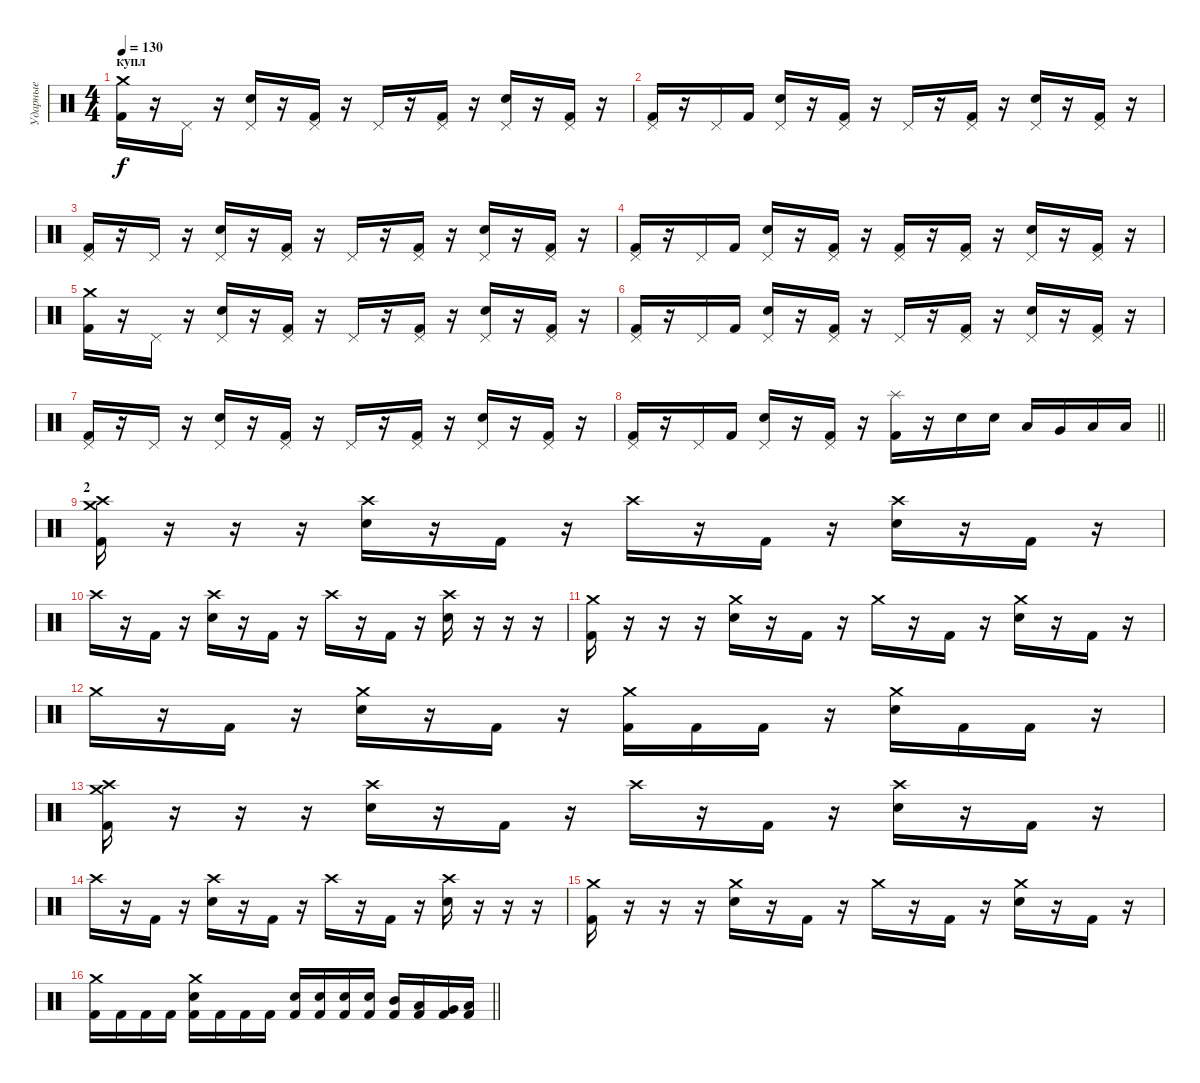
\track ("Ударные" "Ударные") {instrument percussion}
\staff {score}
\articulation defaults
\ts (4 4)
\section ("" "купл")
\tempo 130
\clef neutral
\ks c
("Crash medium (hit)" "Kick (hit) 2").16{dy f} r.16 "Pedal Hi-Hat (hit)".16 r.16 ("Pedal Hi-Hat (hit)" "Snare (hit) 2").16 r.16 ("Pedal Hi-Hat (hit)" "Kick (hit) 2").16 r.16 "Pedal Hi-Hat (hit)".16 r.16 ("Pedal Hi-Hat (hit)" "Kick (hit) 2").16 r.16 ("Pedal Hi-Hat (hit)" "Snare (hit) 2").16 r.16 ("Pedal Hi-Hat (hit)" "Kick (hit) 2").16 r.16 |
("Pedal Hi-Hat (hit)" "Kick (hit) 2").16 r.16 "Pedal Hi-Hat (hit)".16 "Kick (hit) 2".16 ("Pedal Hi-Hat (hit)" "Snare (hit) 2").16 r.16 ("Pedal Hi-Hat (hit)" "Kick (hit) 2").16 r.16 "Pedal Hi-Hat (hit)".16 r.16 ("Pedal Hi-Hat (hit)" "Kick (hit) 2").16 r.16 ("Pedal Hi-Hat (hit)" "Snare (hit) 2").16 r.16 ("Pedal Hi-Hat (hit)" "Kick (hit) 2").16 r.16 |
("Pedal Hi-Hat (hit)" "Kick (hit) 2").16 r.16 "Pedal Hi-Hat (hit)".16 r.16 ("Pedal Hi-Hat (hit)" "Snare (hit) 2").16 r.16 ("Pedal Hi-Hat (hit)" "Kick (hit) 2").16 r.16 "Pedal Hi-Hat (hit)".16 r.16 ("Pedal Hi-Hat (hit)" "Kick (hit) 2").16 r.16 ("Pedal Hi-Hat (hit)" "Snare (hit) 2").16 r.16 ("Pedal Hi-Hat (hit)" "Kick (hit) 2").16 r.16 |
("Pedal Hi-Hat (hit)" "Kick (hit) 2").16 r.16 "Pedal Hi-Hat (hit)".16 "Kick (hit) 2".16 ("Pedal Hi-Hat (hit)" "Snare (hit) 2").16 r.16 ("Pedal Hi-Hat (hit)" "Kick (hit) 2").16 r.16 ("Pedal Hi-Hat (hit)" "Kick (hit) 2").16 r.16 ("Pedal Hi-Hat (hit)" "Kick (hit) 2").16 r.16 ("Pedal Hi-Hat (hit)" "Snare (hit) 2").16 r.16 ("Pedal Hi-Hat (hit)" "Kick (hit) 2").16 r.16 |
("Crash medium (hit)" "Kick (hit) 2").16 r.16 "Pedal Hi-Hat (hit)".16 r.16 ("Pedal Hi-Hat (hit)" "Snare (hit) 2").16 r.16 ("Pedal Hi-Hat (hit)" "Kick (hit) 2").16 r.16 "Pedal Hi-Hat (hit)".16 r.16 ("Pedal Hi-Hat (hit)" "Kick (hit) 2").16 r.16 ("Pedal Hi-Hat (hit)" "Snare (hit) 2").16 r.16 ("Pedal Hi-Hat (hit)" "Kick (hit) 2").16 r.16 |
("Pedal Hi-Hat (hit)" "Kick (hit) 2").16 r.16 "Pedal Hi-Hat (hit)".16 "Kick (hit) 2".16 ("Pedal Hi-Hat (hit)" "Snare (hit) 2").16 r.16 ("Pedal Hi-Hat (hit)" "Kick (hit) 2").16 r.16 "Pedal Hi-Hat (hit)".16 r.16 ("Pedal Hi-Hat (hit)" "Kick (hit) 2").16 r.16 ("Pedal Hi-Hat (hit)" "Snare (hit) 2").16 r.16 ("Pedal Hi-Hat (hit)" "Kick (hit) 2").16 r.16 |
("Pedal Hi-Hat (hit)" "Kick (hit) 2").16 r.16 "Pedal Hi-Hat (hit)".16 r.16 ("Pedal Hi-Hat (hit)" "Snare (hit) 2").16 r.16 ("Pedal Hi-Hat (hit)" "Kick (hit) 2").16 r.16 "Pedal Hi-Hat (hit)".16 r.16 ("Pedal Hi-Hat (hit)" "Kick (hit) 2").16 r.16 ("Pedal Hi-Hat (hit)" "Snare (hit) 2").16 r.16 ("Pedal Hi-Hat (hit)" "Kick (hit) 2").16 r.16 |
\barLineRight lightlight
("Pedal Hi-Hat (hit)" "Kick (hit) 2").16 r.16 "Pedal Hi-Hat (hit)".16 "Kick (hit) 2".16 ("Pedal Hi-Hat (hit)" "Snare (hit) 2").16 r.16 ("Pedal Hi-Hat (hit)" "Kick (hit) 2").16 r.16 ("Splash (hit)" "Kick (hit) 2").16 r.16 "Snare (hit) 2".16 "Snare (hit) 2".16 "Low Floor Tom (hit)".16 "Very Low Tom (hit)".16 "Low Tom (hit)".16 "Low Tom (hit)".16 |
\section ("" "2")
("Crash high (hit)" "Crash medium (hit)" "Kick (hit) 2").16 r.16 r.16 r.16 ("Crash high (hit)" "Snare (hit) 2").16 r.16 "Kick (hit) 2".16 r.16 "Crash high (hit)".16 r.16 "Kick (hit) 2".16 r.16 ("Crash high (hit)" "Snare (hit) 2").16 r.16 "Kick (hit) 2".16 r.16 |
"Crash high (hit)".16 r.16 "Kick (hit) 2".16 r.16 ("Crash high (hit)" "Snare (hit) 2").16 r.16 "Kick (hit) 2".16 r.16 "Crash high (hit)".16 r.16 "Kick (hit) 2".16 r.16 ("Crash high (hit)" "Snare (hit) 2").16 r.16 r.16 r.16 |
("Crash medium (hit)" "Kick (hit) 2").16 r.16 r.16 r.16 ("Crash medium (hit)" "Snare (hit) 2").16 r.16 "Kick (hit) 2".16 r.16 "Crash medium (hit)".16 r.16 "Kick (hit) 2".16 r.16 ("Crash medium (hit)" "Snare (hit) 2").16 r.16 "Kick (hit) 2".16 r.16 |
"Crash medium (hit)".16 r.16 "Kick (hit) 2".16 r.16 ("Crash medium (hit)" "Snare (hit) 2").16 r.16 "Kick (hit) 2".16 r.16 ("Crash medium (hit)" "Kick (hit) 2").16 "Kick (hit) 2".16 "Kick (hit) 2".16 r.16 ("Crash medium (hit)" "Snare (hit) 2").16 "Kick (hit) 2".16 "Kick (hit) 2".16 r.16 |
("Crash high (hit)" "Crash medium (hit)" "Kick (hit) 2").16 r.16 r.16 r.16 ("Crash high (hit)" "Snare (hit) 2").16 r.16 "Kick (hit) 2".16 r.16 "Crash high (hit)".16 r.16 "Kick (hit) 2".16 r.16 ("Crash high (hit)" "Snare (hit) 2").16 r.16 "Kick (hit) 2".16 r.16 |
"Crash high (hit)".16 r.16 "Kick (hit) 2".16 r.16 ("Crash high (hit)" "Snare (hit) 2").16 r.16 "Kick (hit) 2".16 r.16 "Crash high (hit)".16 r.16 "Kick (hit) 2".16 r.16 ("Crash high (hit)" "Snare (hit) 2").16 r.16 r.16 r.16 |
("Crash medium (hit)" "Kick (hit) 2").16 r.16 r.16 r.16 ("Crash medium (hit)" "Snare (hit) 2").16 r.16 "Kick (hit) 2".16 r.16 "Crash medium (hit)".16 r.16 "Kick (hit) 2".16 r.16 ("Crash medium (hit)" "Snare (hit) 2").16 r.16 "Kick (hit) 2".16 r.16 |
\barLineRight lightlight
("Crash medium (hit)" "Kick (hit) 2").16 "Kick (hit) 2".16 "Kick (hit) 2".16 "Kick (hit) 2".16 ("Crash medium (hit)" "Snare (hit) 2" "Kick (hit) 2").16 "Kick (hit) 2".16 "Kick (hit) 2".16 "Kick (hit) 2".16 ("Snare (hit) 2" "Kick (hit) 2").16 ("Snare (hit) 2" "Kick (hit) 2").16 ("Snare (hit) 2" "Kick (hit) 2").16 ("Snare (hit) 2" "Kick (hit) 2").16 ("Mid Tom (hit)" "Kick (hit) 2").16 ("Low Tom (hit)" "Kick (hit) 2").16 ("Very Low Tom (hit)" "Kick (hit) 2").16 ("Low Floor Tom (hit)" "Kick (hit) 2").16
